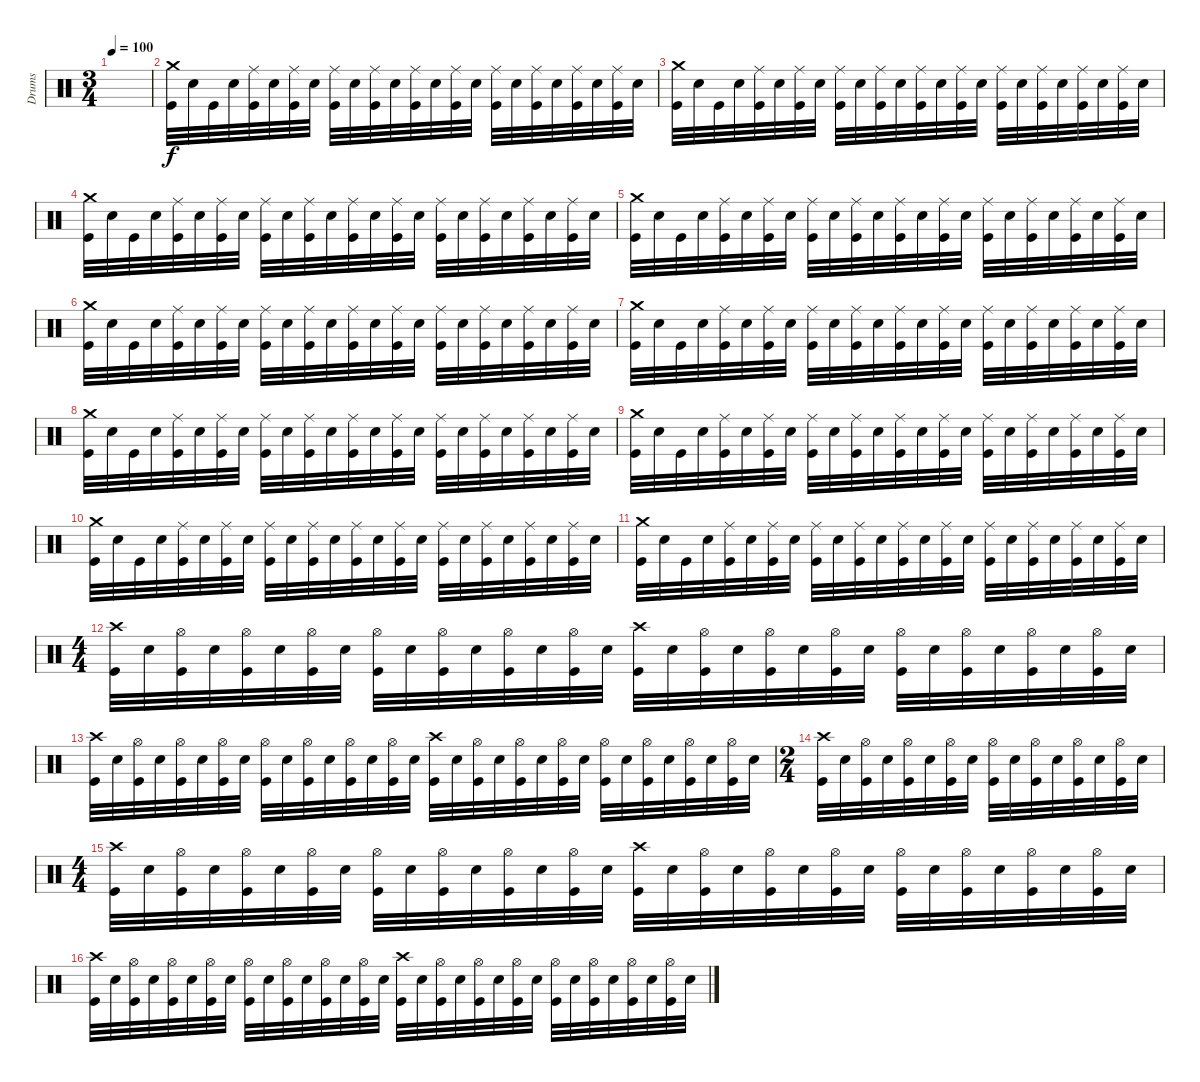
\track ("Drums" "Drums") {instrument percussion}
\staff {score}
\articulation defaults
\ts (3 4)
\tempo 100
\clef neutral
\ks c
|
("Crash medium (hit)" "Kick (hit)").32 "Snare (hit) 2".32 "Kick (hit)".32 "Snare (hit) 2".32 ("Ride (middle)" "Kick (hit)").32 "Snare (hit) 2".32 ("Ride (middle)" "Kick (hit)").32 "Snare (hit) 2".32 ("Ride (middle)" "Kick (hit)").32 "Snare (hit) 2".32 ("Ride (middle)" "Kick (hit)").32 "Snare (hit) 2".32 ("Ride (middle)" "Kick (hit)").32 "Snare (hit) 2".32 ("Ride (middle)" "Kick (hit)").32 "Snare (hit) 2".32 ("Ride (middle)" "Kick (hit)").32 "Snare (hit) 2".32 ("Ride (middle)" "Kick (hit)").32 "Snare (hit) 2".32 ("Ride (middle)" "Kick (hit)").32 "Snare (hit) 2".32 ("Ride (middle)" "Kick (hit)").32 "Snare (hit) 2".32 |
("Crash medium (hit)" "Kick (hit)").32 "Snare (hit) 2".32 "Kick (hit)".32 "Snare (hit) 2".32 ("Ride (middle)" "Kick (hit)").32 "Snare (hit) 2".32 ("Ride (middle)" "Kick (hit)").32 "Snare (hit) 2".32 ("Ride (middle)" "Kick (hit)").32 "Snare (hit) 2".32 ("Ride (middle)" "Kick (hit)").32 "Snare (hit) 2".32 ("Ride (middle)" "Kick (hit)").32 "Snare (hit) 2".32 ("Ride (middle)" "Kick (hit)").32 "Snare (hit) 2".32 ("Ride (middle)" "Kick (hit)").32 "Snare (hit) 2".32 ("Ride (middle)" "Kick (hit)").32 "Snare (hit) 2".32 ("Ride (middle)" "Kick (hit)").32 "Snare (hit) 2".32 ("Ride (middle)" "Kick (hit)").32 "Snare (hit) 2".32 |
("Crash medium (hit)" "Kick (hit)").32 "Snare (hit) 2".32 "Kick (hit)".32 "Snare (hit) 2".32 ("Ride (middle)" "Kick (hit)").32 "Snare (hit) 2".32 ("Ride (middle)" "Kick (hit)").32 "Snare (hit) 2".32 ("Ride (middle)" "Kick (hit)").32 "Snare (hit) 2".32 ("Ride (middle)" "Kick (hit)").32 "Snare (hit) 2".32 ("Ride (middle)" "Kick (hit)").32 "Snare (hit) 2".32 ("Ride (middle)" "Kick (hit)").32 "Snare (hit) 2".32 ("Ride (middle)" "Kick (hit)").32 "Snare (hit) 2".32 ("Ride (middle)" "Kick (hit)").32 "Snare (hit) 2".32 ("Ride (middle)" "Kick (hit)").32 "Snare (hit) 2".32 ("Ride (middle)" "Kick (hit)").32 "Snare (hit) 2".32 |
("Crash medium (hit)" "Kick (hit)").32 "Snare (hit) 2".32 "Kick (hit)".32 "Snare (hit) 2".32 ("Ride (middle)" "Kick (hit)").32 "Snare (hit) 2".32 ("Ride (middle)" "Kick (hit)").32 "Snare (hit) 2".32 ("Ride (middle)" "Kick (hit)").32 "Snare (hit) 2".32 ("Ride (middle)" "Kick (hit)").32 "Snare (hit) 2".32 ("Ride (middle)" "Kick (hit)").32 "Snare (hit) 2".32 ("Ride (middle)" "Kick (hit)").32 "Snare (hit) 2".32 ("Ride (middle)" "Kick (hit)").32 "Snare (hit) 2".32 ("Ride (middle)" "Kick (hit)").32 "Snare (hit) 2".32 ("Ride (middle)" "Kick (hit)").32 "Snare (hit) 2".32 ("Ride (middle)" "Kick (hit)").32 "Snare (hit) 2".32 |
("Crash medium (hit)" "Kick (hit)").32 "Snare (hit) 2".32 "Kick (hit)".32 "Snare (hit) 2".32 ("Ride (middle)" "Kick (hit)").32 "Snare (hit) 2".32 ("Ride (middle)" "Kick (hit)").32 "Snare (hit) 2".32 ("Ride (middle)" "Kick (hit)").32 "Snare (hit) 2".32 ("Ride (middle)" "Kick (hit)").32 "Snare (hit) 2".32 ("Ride (middle)" "Kick (hit)").32 "Snare (hit) 2".32 ("Ride (middle)" "Kick (hit)").32 "Snare (hit) 2".32 ("Ride (middle)" "Kick (hit)").32 "Snare (hit) 2".32 ("Ride (middle)" "Kick (hit)").32 "Snare (hit) 2".32 ("Ride (middle)" "Kick (hit)").32 "Snare (hit) 2".32 ("Ride (middle)" "Kick (hit)").32 "Snare (hit) 2".32 |
("Crash medium (hit)" "Kick (hit)").32 "Snare (hit) 2".32 "Kick (hit)".32 "Snare (hit) 2".32 ("Ride (middle)" "Kick (hit)").32 "Snare (hit) 2".32 ("Ride (middle)" "Kick (hit)").32 "Snare (hit) 2".32 ("Ride (middle)" "Kick (hit)").32 "Snare (hit) 2".32 ("Ride (middle)" "Kick (hit)").32 "Snare (hit) 2".32 ("Ride (middle)" "Kick (hit)").32 "Snare (hit) 2".32 ("Ride (middle)" "Kick (hit)").32 "Snare (hit) 2".32 ("Ride (middle)" "Kick (hit)").32 "Snare (hit) 2".32 ("Ride (middle)" "Kick (hit)").32 "Snare (hit) 2".32 ("Ride (middle)" "Kick (hit)").32 "Snare (hit) 2".32 ("Ride (middle)" "Kick (hit)").32 "Snare (hit) 2".32 |
("Crash medium (hit)" "Kick (hit)").32 "Snare (hit) 2".32 "Kick (hit)".32 "Snare (hit) 2".32 ("Ride (middle)" "Kick (hit)").32 "Snare (hit) 2".32 ("Ride (middle)" "Kick (hit)").32 "Snare (hit) 2".32 ("Ride (middle)" "Kick (hit)").32 "Snare (hit) 2".32 ("Ride (middle)" "Kick (hit)").32 "Snare (hit) 2".32 ("Ride (middle)" "Kick (hit)").32 "Snare (hit) 2".32 ("Ride (middle)" "Kick (hit)").32 "Snare (hit) 2".32 ("Ride (middle)" "Kick (hit)").32 "Snare (hit) 2".32 ("Ride (middle)" "Kick (hit)").32 "Snare (hit) 2".32 ("Ride (middle)" "Kick (hit)").32 "Snare (hit) 2".32 ("Ride (middle)" "Kick (hit)").32 "Snare (hit) 2".32 |
("Crash medium (hit)" "Kick (hit)").32 "Snare (hit) 2".32 "Kick (hit)".32 "Snare (hit) 2".32 ("Ride (middle)" "Kick (hit)").32 "Snare (hit) 2".32 ("Ride (middle)" "Kick (hit)").32 "Snare (hit) 2".32 ("Ride (middle)" "Kick (hit)").32 "Snare (hit) 2".32 ("Ride (middle)" "Kick (hit)").32 "Snare (hit) 2".32 ("Ride (middle)" "Kick (hit)").32 "Snare (hit) 2".32 ("Ride (middle)" "Kick (hit)").32 "Snare (hit) 2".32 ("Ride (middle)" "Kick (hit)").32 "Snare (hit) 2".32 ("Ride (middle)" "Kick (hit)").32 "Snare (hit) 2".32 ("Ride (middle)" "Kick (hit)").32 "Snare (hit) 2".32 ("Ride (middle)" "Kick (hit)").32 "Snare (hit) 2".32 |
("Crash medium (hit)" "Kick (hit)").32 "Snare (hit) 2".32 "Kick (hit)".32 "Snare (hit) 2".32 ("Ride (middle)" "Kick (hit)").32 "Snare (hit) 2".32 ("Ride (middle)" "Kick (hit)").32 "Snare (hit) 2".32 ("Ride (middle)" "Kick (hit)").32 "Snare (hit) 2".32 ("Ride (middle)" "Kick (hit)").32 "Snare (hit) 2".32 ("Ride (middle)" "Kick (hit)").32 "Snare (hit) 2".32 ("Ride (middle)" "Kick (hit)").32 "Snare (hit) 2".32 ("Ride (middle)" "Kick (hit)").32 "Snare (hit) 2".32 ("Ride (middle)" "Kick (hit)").32 "Snare (hit) 2".32 ("Ride (middle)" "Kick (hit)").32 "Snare (hit) 2".32 ("Ride (middle)" "Kick (hit)").32 "Snare (hit) 2".32 |
("Crash medium (hit)" "Kick (hit)").32 "Snare (hit) 2".32 "Kick (hit)".32 "Snare (hit) 2".32 ("Ride (middle)" "Kick (hit)").32 "Snare (hit) 2".32 ("Ride (middle)" "Kick (hit)").32 "Snare (hit) 2".32 ("Ride (middle)" "Kick (hit)").32 "Snare (hit) 2".32 ("Ride (middle)" "Kick (hit)").32 "Snare (hit) 2".32 ("Ride (middle)" "Kick (hit)").32 "Snare (hit) 2".32 ("Ride (middle)" "Kick (hit)").32 "Snare (hit) 2".32 ("Ride (middle)" "Kick (hit)").32 "Snare (hit) 2".32 ("Ride (middle)" "Kick (hit)").32 "Snare (hit) 2".32 ("Ride (middle)" "Kick (hit)").32 "Snare (hit) 2".32 ("Ride (middle)" "Kick (hit)").32 "Snare (hit) 2".32 |
\ts (4 4)
("Crash high (hit)" "Kick (hit)").32 "Snare (hit) 2".32 ("Hi-Hat (open)" "Kick (hit)").32 "Snare (hit) 2".32 ("Hi-Hat (open)" "Kick (hit)").32 "Snare (hit) 2".32 ("Hi-Hat (open)" "Kick (hit)").32 "Snare (hit) 2".32 ("Hi-Hat (open)" "Kick (hit)").32 "Snare (hit) 2".32 ("Hi-Hat (open)" "Kick (hit)").32 "Snare (hit) 2".32 ("Hi-Hat (open)" "Kick (hit)").32 "Snare (hit) 2".32 ("Hi-Hat (open)" "Kick (hit)").32 "Snare (hit) 2".32 ("Crash high (hit)" "Kick (hit)").32 "Snare (hit) 2".32 ("Hi-Hat (open)" "Kick (hit)").32 "Snare (hit) 2".32 ("Hi-Hat (open)" "Kick (hit)").32 "Snare (hit) 2".32 ("Hi-Hat (open)" "Kick (hit)").32 "Snare (hit) 2".32 ("Hi-Hat (open)" "Kick (hit)").32 "Snare (hit) 2".32 ("Hi-Hat (open)" "Kick (hit)").32 "Snare (hit) 2".32 ("Hi-Hat (open)" "Kick (hit)").32 "Snare (hit) 2".32 ("Hi-Hat (open)" "Kick (hit)").32 "Snare (hit) 2".32 |
("Crash high (hit)" "Kick (hit)").32 "Snare (hit) 2".32 ("Hi-Hat (open)" "Kick (hit)").32 "Snare (hit) 2".32 ("Hi-Hat (open)" "Kick (hit)").32 "Snare (hit) 2".32 ("Hi-Hat (open)" "Kick (hit)").32 "Snare (hit) 2".32 ("Hi-Hat (open)" "Kick (hit)").32 "Snare (hit) 2".32 ("Hi-Hat (open)" "Kick (hit)").32 "Snare (hit) 2".32 ("Hi-Hat (open)" "Kick (hit)").32 "Snare (hit) 2".32 ("Hi-Hat (open)" "Kick (hit)").32 "Snare (hit) 2".32 ("Crash high (hit)" "Kick (hit)").32 "Snare (hit) 2".32 ("Hi-Hat (open)" "Kick (hit)").32 "Snare (hit) 2".32 ("Hi-Hat (open)" "Kick (hit)").32 "Snare (hit) 2".32 ("Hi-Hat (open)" "Kick (hit)").32 "Snare (hit) 2".32 ("Hi-Hat (open)" "Kick (hit)").32 "Snare (hit) 2".32 ("Hi-Hat (open)" "Kick (hit)").32 "Snare (hit) 2".32 ("Hi-Hat (open)" "Kick (hit)").32 "Snare (hit) 2".32 ("Hi-Hat (open)" "Kick (hit)").32 "Snare (hit) 2".32 |
\ts (2 4)
("Crash high (hit)" "Kick (hit)").32 "Snare (hit) 2".32 ("Hi-Hat (open)" "Kick (hit)").32 "Snare (hit) 2".32 ("Hi-Hat (open)" "Kick (hit)").32 "Snare (hit) 2".32 ("Hi-Hat (open)" "Kick (hit)").32 "Snare (hit) 2".32 ("Hi-Hat (open)" "Kick (hit)").32 "Snare (hit) 2".32 ("Hi-Hat (open)" "Kick (hit)").32 "Snare (hit) 2".32 ("Hi-Hat (open)" "Kick (hit)").32 "Snare (hit) 2".32 ("Hi-Hat (open)" "Kick (hit)").32 "Snare (hit) 2".32 |
\ts (4 4)
("Crash high (hit)" "Kick (hit)").32 "Snare (hit) 2".32 ("Hi-Hat (open)" "Kick (hit)").32 "Snare (hit) 2".32 ("Hi-Hat (open)" "Kick (hit)").32 "Snare (hit) 2".32 ("Hi-Hat (open)" "Kick (hit)").32 "Snare (hit) 2".32 ("Hi-Hat (open)" "Kick (hit)").32 "Snare (hit) 2".32 ("Hi-Hat (open)" "Kick (hit)").32 "Snare (hit) 2".32 ("Hi-Hat (open)" "Kick (hit)").32 "Snare (hit) 2".32 ("Hi-Hat (open)" "Kick (hit)").32 "Snare (hit) 2".32 ("Crash high (hit)" "Kick (hit)").32 "Snare (hit) 2".32 ("Hi-Hat (open)" "Kick (hit)").32 "Snare (hit) 2".32 ("Hi-Hat (open)" "Kick (hit)").32 "Snare (hit) 2".32 ("Hi-Hat (open)" "Kick (hit)").32 "Snare (hit) 2".32 ("Hi-Hat (open)" "Kick (hit)").32 "Snare (hit) 2".32 ("Hi-Hat (open)" "Kick (hit)").32 "Snare (hit) 2".32 ("Hi-Hat (open)" "Kick (hit)").32 "Snare (hit) 2".32 ("Hi-Hat (open)" "Kick (hit)").32 "Snare (hit) 2".32 |
("Crash high (hit)" "Kick (hit)").32 "Snare (hit) 2".32 ("Hi-Hat (open)" "Kick (hit)").32 "Snare (hit) 2".32 ("Hi-Hat (open)" "Kick (hit)").32 "Snare (hit) 2".32 ("Hi-Hat (open)" "Kick (hit)").32 "Snare (hit) 2".32 ("Hi-Hat (open)" "Kick (hit)").32 "Snare (hit) 2".32 ("Hi-Hat (open)" "Kick (hit)").32 "Snare (hit) 2".32 ("Hi-Hat (open)" "Kick (hit)").32 "Snare (hit) 2".32 ("Hi-Hat (open)" "Kick (hit)").32 "Snare (hit) 2".32 ("Crash high (hit)" "Kick (hit)").32 "Snare (hit) 2".32 ("Hi-Hat (open)" "Kick (hit)").32 "Snare (hit) 2".32 ("Hi-Hat (open)" "Kick (hit)").32 "Snare (hit) 2".32 ("Hi-Hat (open)" "Kick (hit)").32 "Snare (hit) 2".32 ("Hi-Hat (open)" "Kick (hit)").32 "Snare (hit) 2".32 ("Hi-Hat (open)" "Kick (hit)").32 "Snare (hit) 2".32 ("Hi-Hat (open)" "Kick (hit)").32 "Snare (hit) 2".32 ("Hi-Hat (open)" "Kick (hit)").32 "Snare (hit) 2".32
